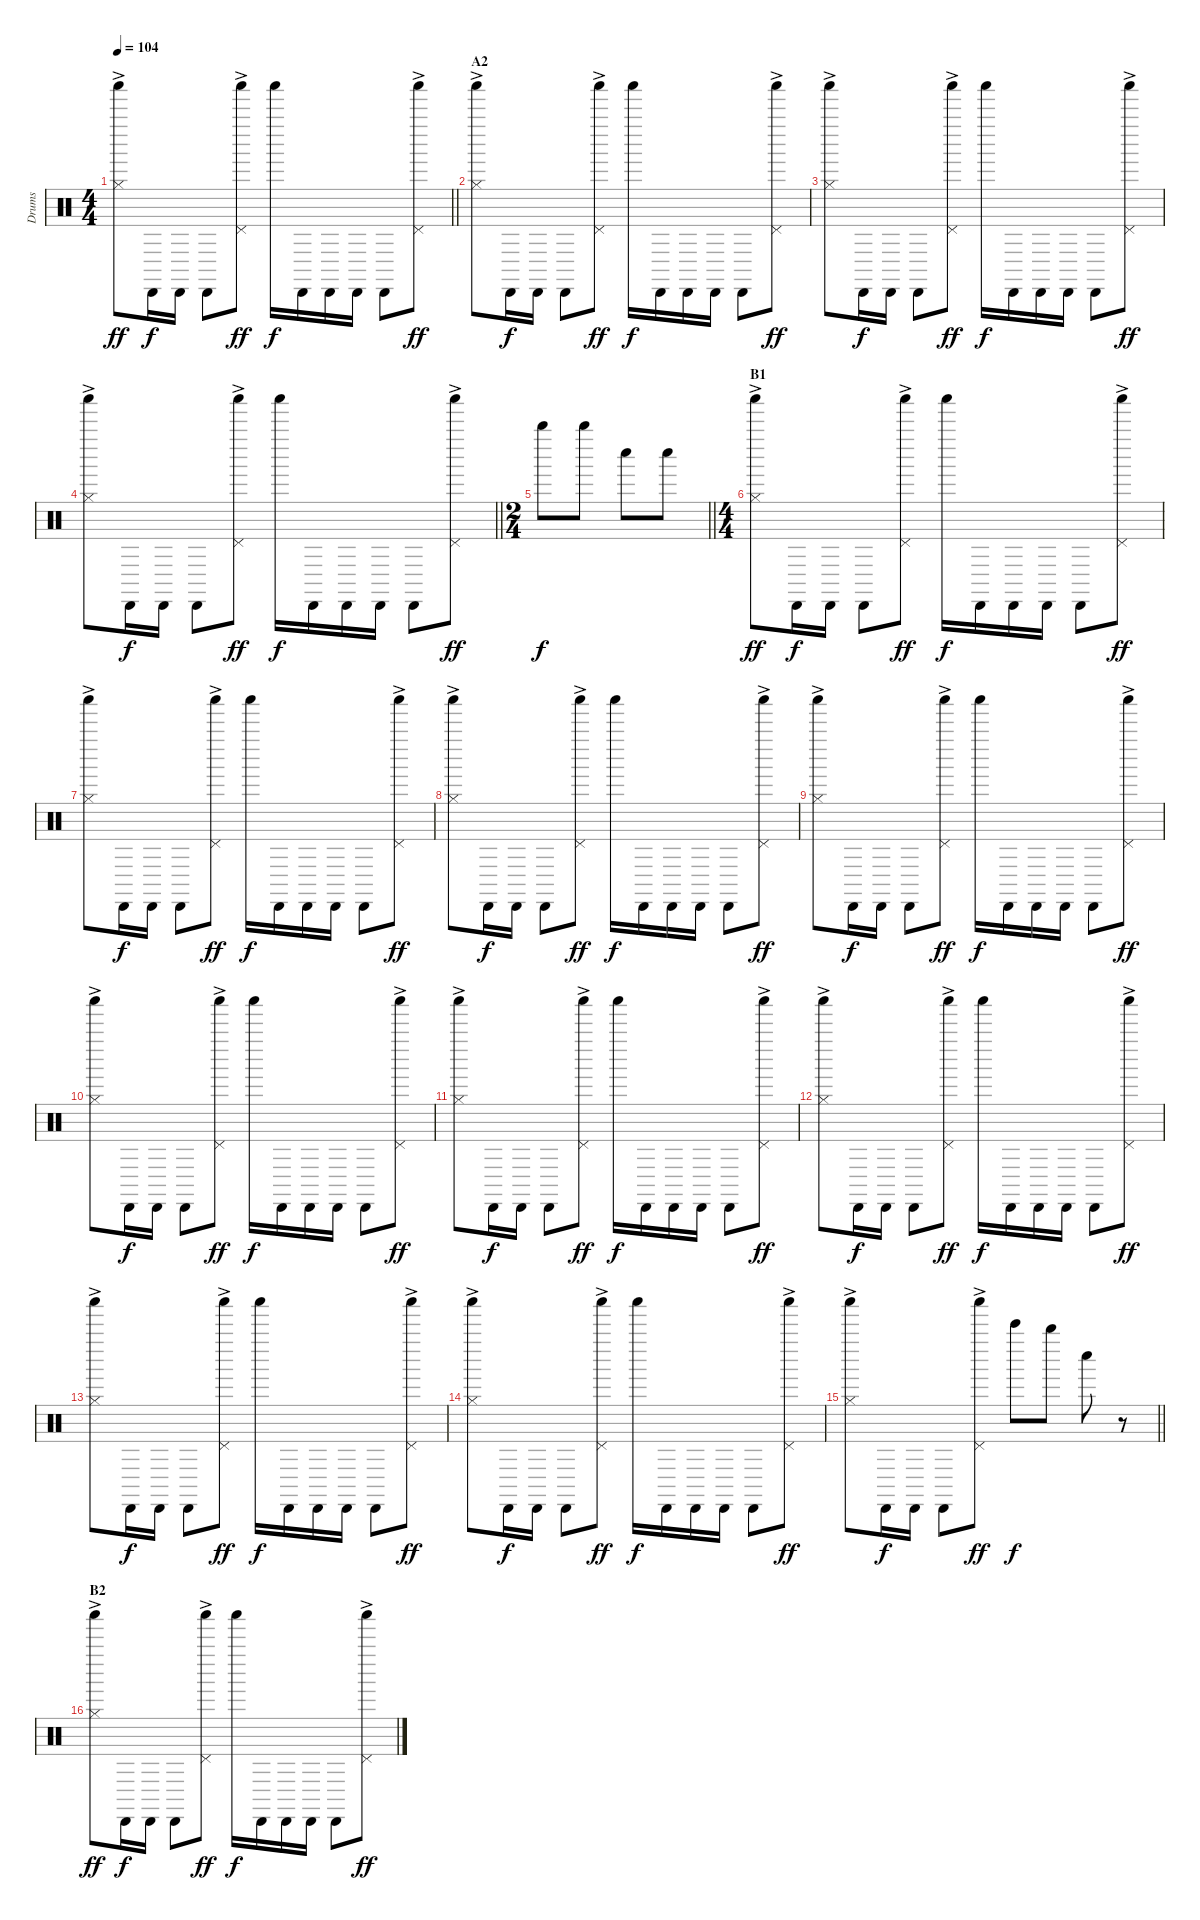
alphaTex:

\track ("Drums" "Drums") {instrument percussion}
\staff {score}
\articulation defaults
\ts (4 4)
\tempo 104
\clef neutral
\barLineRight lightlight
\ks c
("Shaker (hit)" "Hi-Hat (closed)"{ac}).8{dy ff} "Cabasa (hit)".16{dy f} "Cabasa (hit)".16 "Cabasa (hit)".8 ("Shaker (hit)" "Pedal Hi-Hat (hit)"{ac}).8{dy ff} "Shaker (hit)".16{dy f} "Cabasa (hit)".16 "Cabasa (hit)".16 "Cabasa (hit)".16 "Cabasa (hit)".8 ("Shaker (hit)" "Pedal Hi-Hat (hit)"{ac}).8{dy ff} |
\section ("" "A2")
("Shaker (hit)" "Hi-Hat (closed)"{ac}).8 "Cabasa (hit)".16{dy f} "Cabasa (hit)".16 "Cabasa (hit)".8 ("Shaker (hit)" "Pedal Hi-Hat (hit)"{ac}).8{dy ff} "Shaker (hit)".16{dy f} "Cabasa (hit)".16 "Cabasa (hit)".16 "Cabasa (hit)".16 "Cabasa (hit)".8 ("Shaker (hit)" "Pedal Hi-Hat (hit)"{ac}).8{dy ff} |
("Shaker (hit)" "Hi-Hat (closed)"{ac}).8 "Cabasa (hit)".16{dy f} "Cabasa (hit)".16 "Cabasa (hit)".8 ("Shaker (hit)" "Pedal Hi-Hat (hit)"{ac}).8{dy ff} "Shaker (hit)".16{dy f} "Cabasa (hit)".16 "Cabasa (hit)".16 "Cabasa (hit)".16 "Cabasa (hit)".8 ("Shaker (hit)" "Pedal Hi-Hat (hit)"{ac}).8{dy ff} |
\barLineRight lightlight
("Shaker (hit)" "Hi-Hat (closed)"{ac}).8 "Cabasa (hit)".16{dy f} "Cabasa (hit)".16 "Cabasa (hit)".8 ("Shaker (hit)" "Pedal Hi-Hat (hit)"{ac}).8{dy ff} "Shaker (hit)".16{dy f} "Cabasa (hit)".16 "Cabasa (hit)".16 "Cabasa (hit)".16 "Cabasa (hit)".8 ("Shaker (hit)" "Pedal Hi-Hat (hit)"{ac}).8{dy ff} |
\ts (2 4)
\barLineRight lightlight "Whistle high (hit)".8{dy f} "Whistle high (hit)".8 "Whistle low (hit)".8 "Whistle low (hit)".8
|
\ts (4 4)
\section ("" "B1")
("Shaker (hit)" "Hi-Hat (closed)"{ac}).8{dy ff} "Cabasa (hit)".16{dy f} "Cabasa (hit)".16 "Cabasa (hit)".8 ("Shaker (hit)" "Pedal Hi-Hat (hit)"{ac}).8{dy ff} "Shaker (hit)".16{dy f} "Cabasa (hit)".16 "Cabasa (hit)".16 "Cabasa (hit)".16 "Cabasa (hit)".8 ("Shaker (hit)" "Pedal Hi-Hat (hit)"{ac}).8{dy ff} |
("Shaker (hit)" "Hi-Hat (closed)"{ac}).8 "Cabasa (hit)".16{dy f} "Cabasa (hit)".16 "Cabasa (hit)".8 ("Shaker (hit)" "Pedal Hi-Hat (hit)"{ac}).8{dy ff} "Shaker (hit)".16{dy f} "Cabasa (hit)".16 "Cabasa (hit)".16 "Cabasa (hit)".16 "Cabasa (hit)".8 ("Shaker (hit)" "Pedal Hi-Hat (hit)"{ac}).8{dy ff} |
("Shaker (hit)" "Hi-Hat (closed)"{ac}).8 "Cabasa (hit)".16{dy f} "Cabasa (hit)".16 "Cabasa (hit)".8 ("Shaker (hit)" "Pedal Hi-Hat (hit)"{ac}).8{dy ff} "Shaker (hit)".16{dy f} "Cabasa (hit)".16 "Cabasa (hit)".16 "Cabasa (hit)".16 "Cabasa (hit)".8 ("Shaker (hit)" "Pedal Hi-Hat (hit)"{ac}).8{dy ff} |
("Shaker (hit)" "Hi-Hat (closed)"{ac}).8 "Cabasa (hit)".16{dy f} "Cabasa (hit)".16 "Cabasa (hit)".8 ("Shaker (hit)" "Pedal Hi-Hat (hit)"{ac}).8{dy ff} "Shaker (hit)".16{dy f} "Cabasa (hit)".16 "Cabasa (hit)".16 "Cabasa (hit)".16 "Cabasa (hit)".8 ("Shaker (hit)" "Pedal Hi-Hat (hit)"{ac}).8{dy ff} |
("Shaker (hit)" "Hi-Hat (closed)"{ac}).8 "Cabasa (hit)".16{dy f} "Cabasa (hit)".16 "Cabasa (hit)".8 ("Shaker (hit)" "Pedal Hi-Hat (hit)"{ac}).8{dy ff} "Shaker (hit)".16{dy f} "Cabasa (hit)".16 "Cabasa (hit)".16 "Cabasa (hit)".16 "Cabasa (hit)".8 ("Shaker (hit)" "Pedal Hi-Hat (hit)"{ac}).8{dy ff} |
("Shaker (hit)" "Hi-Hat (closed)"{ac}).8 "Cabasa (hit)".16{dy f} "Cabasa (hit)".16 "Cabasa (hit)".8 ("Shaker (hit)" "Pedal Hi-Hat (hit)"{ac}).8{dy ff} "Shaker (hit)".16{dy f} "Cabasa (hit)".16 "Cabasa (hit)".16 "Cabasa (hit)".16 "Cabasa (hit)".8 ("Shaker (hit)" "Pedal Hi-Hat (hit)"{ac}).8{dy ff} |
("Shaker (hit)" "Hi-Hat (closed)"{ac}).8 "Cabasa (hit)".16{dy f} "Cabasa (hit)".16 "Cabasa (hit)".8 ("Shaker (hit)" "Pedal Hi-Hat (hit)"{ac}).8{dy ff} "Shaker (hit)".16{dy f} "Cabasa (hit)".16 "Cabasa (hit)".16 "Cabasa (hit)".16 "Cabasa (hit)".8 ("Shaker (hit)" "Pedal Hi-Hat (hit)"{ac}).8{dy ff} |
("Shaker (hit)" "Hi-Hat (closed)"{ac}).8 "Cabasa (hit)".16{dy f} "Cabasa (hit)".16 "Cabasa (hit)".8 ("Shaker (hit)" "Pedal Hi-Hat (hit)"{ac}).8{dy ff} "Shaker (hit)".16{dy f} "Cabasa (hit)".16 "Cabasa (hit)".16 "Cabasa (hit)".16 "Cabasa (hit)".8 ("Shaker (hit)" "Pedal Hi-Hat (hit)"{ac}).8{dy ff} |
("Shaker (hit)" "Hi-Hat (closed)"{ac}).8 "Cabasa (hit)".16{dy f} "Cabasa (hit)".16 "Cabasa (hit)".8 ("Shaker (hit)" "Pedal Hi-Hat (hit)"{ac}).8{dy ff} "Shaker (hit)".16{dy f} "Cabasa (hit)".16 "Cabasa (hit)".16 "Cabasa (hit)".16 "Cabasa (hit)".8 ("Shaker (hit)" "Pedal Hi-Hat (hit)"{ac}).8{dy ff} |
\barLineRight lightlight
("Shaker (hit)" "Hi-Hat (closed)"{ac}).8 "Cabasa (hit)".16{dy f} "Cabasa (hit)".16 "Cabasa (hit)".8 ("Shaker (hit)" "Pedal Hi-Hat (hit)"{ac}).8{dy ff} "Bell Tree (hit)".8{dy f} "Whistle high (hit)".8 "Whistle low (hit)".8 r.8 |
\section ("" "B2")
("Shaker (hit)" "Hi-Hat (closed)"{ac}).8{dy ff} "Cabasa (hit)".16{dy f} "Cabasa (hit)".16 "Cabasa (hit)".8 ("Shaker (hit)" "Pedal Hi-Hat (hit)"{ac}).8{dy ff} "Shaker (hit)".16{dy f} "Cabasa (hit)".16 "Cabasa (hit)".16 "Cabasa (hit)".16 "Cabasa (hit)".8 ("Shaker (hit)" "Pedal Hi-Hat (hit)"{ac}).8{dy ff}
